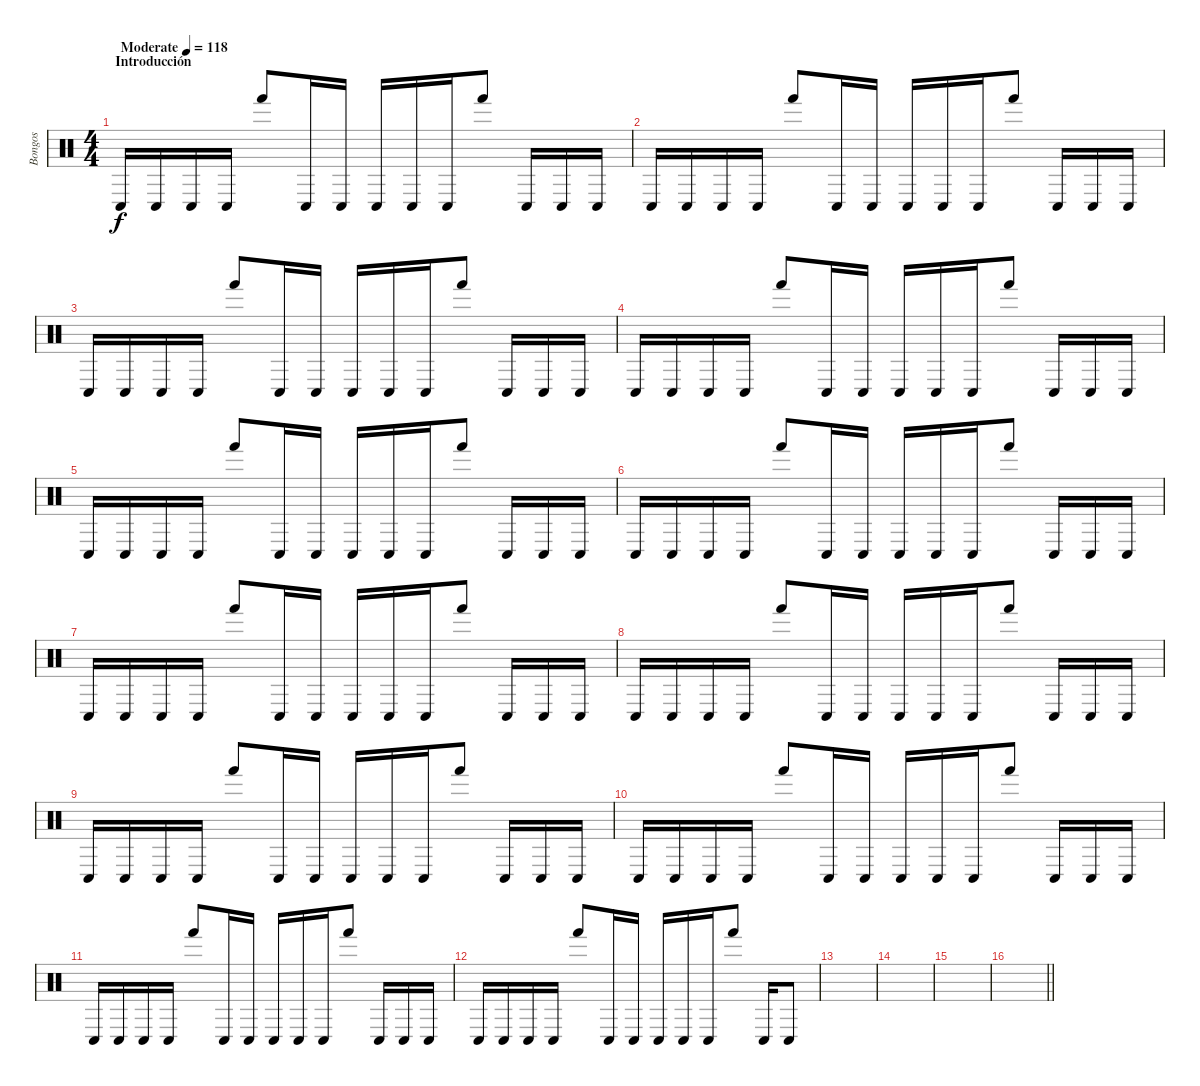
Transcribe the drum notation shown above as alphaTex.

\track ("Bongos" "Bongos") {instrument percussion}
\staff {score}
\articulation defaults
\ts (4 4)
\section ("" "Introducción")
\tempo (118 "Moderate")
\clef neutral
\ks c "Conga low (hit)".16{dy f} "Conga low (hit)".16 "Conga low (hit)".16 "Conga low (hit)".16 "Hand (hit)".8 "Conga low (hit)".16 "Conga low (hit)".16 "Conga low (hit)".16 "Conga low (hit)".16 "Conga low (hit)".16 "Hand (hit)".8 "Conga low (hit)".16 "Conga low (hit)".16 "Conga low (hit)".16
|
"Conga low (hit)".16 "Conga low (hit)".16 "Conga low (hit)".16 "Conga low (hit)".16 "Hand (hit)".8 "Conga low (hit)".16 "Conga low (hit)".16 "Conga low (hit)".16 "Conga low (hit)".16 "Conga low (hit)".16 "Hand (hit)".8 "Conga low (hit)".16 "Conga low (hit)".16 "Conga low (hit)".16 |
"Conga low (hit)".16 "Conga low (hit)".16 "Conga low (hit)".16 "Conga low (hit)".16 "Hand (hit)".8 "Conga low (hit)".16 "Conga low (hit)".16 "Conga low (hit)".16 "Conga low (hit)".16 "Conga low (hit)".16 "Hand (hit)".8 "Conga low (hit)".16 "Conga low (hit)".16 "Conga low (hit)".16 |
"Conga low (hit)".16 "Conga low (hit)".16 "Conga low (hit)".16 "Conga low (hit)".16 "Hand (hit)".8 "Conga low (hit)".16 "Conga low (hit)".16 "Conga low (hit)".16 "Conga low (hit)".16 "Conga low (hit)".16 "Hand (hit)".8 "Conga low (hit)".16 "Conga low (hit)".16 "Conga low (hit)".16 |
"Conga low (hit)".16 "Conga low (hit)".16 "Conga low (hit)".16 "Conga low (hit)".16 "Hand (hit)".8 "Conga low (hit)".16 "Conga low (hit)".16 "Conga low (hit)".16 "Conga low (hit)".16 "Conga low (hit)".16 "Hand (hit)".8 "Conga low (hit)".16 "Conga low (hit)".16 "Conga low (hit)".16 |
"Conga low (hit)".16 "Conga low (hit)".16 "Conga low (hit)".16 "Conga low (hit)".16 "Hand (hit)".8 "Conga low (hit)".16 "Conga low (hit)".16 "Conga low (hit)".16 "Conga low (hit)".16 "Conga low (hit)".16 "Hand (hit)".8 "Conga low (hit)".16 "Conga low (hit)".16 "Conga low (hit)".16 |
"Conga low (hit)".16 "Conga low (hit)".16 "Conga low (hit)".16 "Conga low (hit)".16 "Hand (hit)".8 "Conga low (hit)".16 "Conga low (hit)".16 "Conga low (hit)".16 "Conga low (hit)".16 "Conga low (hit)".16 "Hand (hit)".8 "Conga low (hit)".16 "Conga low (hit)".16 "Conga low (hit)".16 |
"Conga low (hit)".16 "Conga low (hit)".16 "Conga low (hit)".16 "Conga low (hit)".16 "Hand (hit)".8 "Conga low (hit)".16 "Conga low (hit)".16 "Conga low (hit)".16 "Conga low (hit)".16 "Conga low (hit)".16 "Hand (hit)".8 "Conga low (hit)".16 "Conga low (hit)".16 "Conga low (hit)".16 |
"Conga low (hit)".16 "Conga low (hit)".16 "Conga low (hit)".16 "Conga low (hit)".16 "Hand (hit)".8 "Conga low (hit)".16 "Conga low (hit)".16 "Conga low (hit)".16 "Conga low (hit)".16 "Conga low (hit)".16 "Hand (hit)".8 "Conga low (hit)".16 "Conga low (hit)".16 "Conga low (hit)".16 |
"Conga low (hit)".16 "Conga low (hit)".16 "Conga low (hit)".16 "Conga low (hit)".16 "Hand (hit)".8 "Conga low (hit)".16 "Conga low (hit)".16 "Conga low (hit)".16 "Conga low (hit)".16 "Conga low (hit)".16 "Hand (hit)".8 "Conga low (hit)".16 "Conga low (hit)".16 "Conga low (hit)".16 |
"Conga low (hit)".16 "Conga low (hit)".16 "Conga low (hit)".16 "Conga low (hit)".16 "Hand (hit)".8 "Conga low (hit)".16 "Conga low (hit)".16 "Conga low (hit)".16 "Conga low (hit)".16 "Conga low (hit)".16 "Hand (hit)".8 "Conga low (hit)".16 "Conga low (hit)".16 "Conga low (hit)".16 |
"Conga low (hit)".16 "Conga low (hit)".16 "Conga low (hit)".16 "Conga low (hit)".16 "Hand (hit)".8 "Conga low (hit)".16 "Conga low (hit)".16 "Conga low (hit)".16 "Conga low (hit)".16 "Conga low (hit)".16 "Hand (hit)".8 "Conga low (hit)".16 "Conga low (hit)".8 |
|
|
|
\barLineRight lightlight
